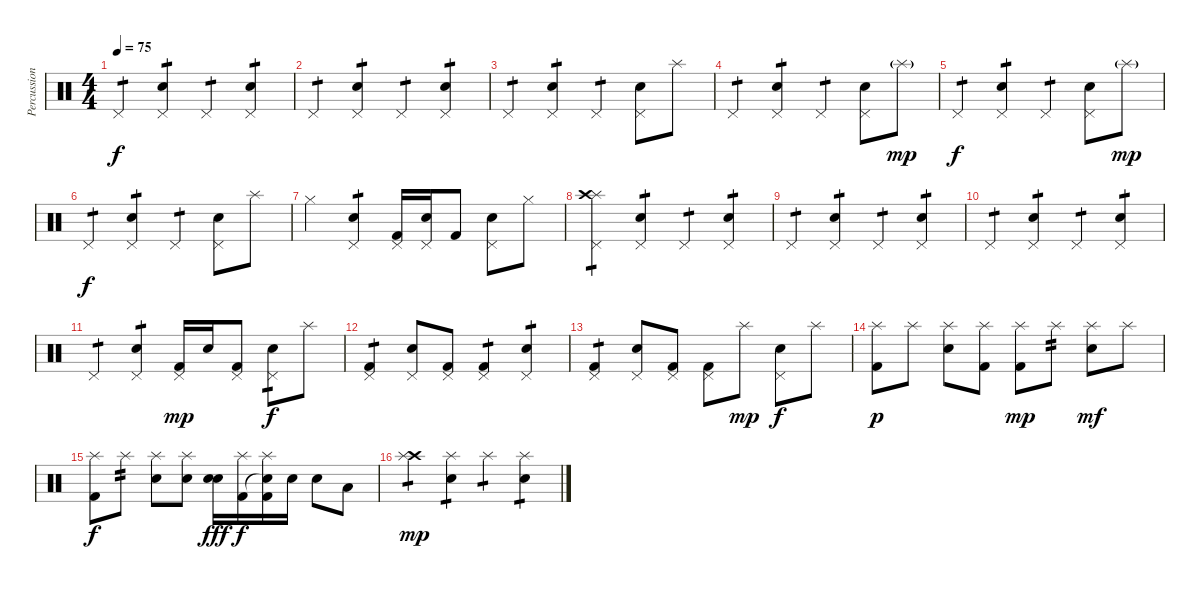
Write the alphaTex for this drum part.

\track ("Percussion" "Percussion") {instrument percussion}
\staff {score}
\articulation defaults
\ts (4 4)
\tempo 75
\clef neutral
\ks c "Pedal Hi-Hat (hit)".4{tp 1 dy f}
("Electric Snare (hit)" "Pedal Hi-Hat (hit)").4{tp 1} "Pedal Hi-Hat (hit)".4{tp 1} ("Electric Snare (hit)" "Pedal Hi-Hat (hit)").4{tp 1} |
"Pedal Hi-Hat (hit)".4{tp 1} ("Electric Snare (hit)" "Pedal Hi-Hat (hit)").4{tp 1} "Pedal Hi-Hat (hit)".4{tp 1} ("Electric Snare (hit)" "Pedal Hi-Hat (hit)").4{tp 1} |
"Pedal Hi-Hat (hit)".4{tp 1} ("Electric Snare (hit)" "Pedal Hi-Hat (hit)").4{tp 1} "Pedal Hi-Hat (hit)".4{tp 1} ("Electric Snare (hit)" "Pedal Hi-Hat (hit)").8 "Splash (hit)".8 |
"Pedal Hi-Hat (hit)".4{tp 1} ("Electric Snare (hit)" "Pedal Hi-Hat (hit)").4{tp 1} "Pedal Hi-Hat (hit)".4{tp 1} ("Electric Snare (hit)" "Pedal Hi-Hat (hit)").8 "Splash (hit)"{g}.8{dy mp} |
"Pedal Hi-Hat (hit)".4{tp 1 dy f} ("Electric Snare (hit)" "Pedal Hi-Hat (hit)").4{tp 1} "Pedal Hi-Hat (hit)".4{tp 1} ("Electric Snare (hit)" "Pedal Hi-Hat (hit)").8 "Splash (hit)"{g}.8{dy mp} |
"Pedal Hi-Hat (hit)".4{tp 1 dy f} ("Electric Snare (hit)" "Pedal Hi-Hat (hit)").4{tp 1} "Pedal Hi-Hat (hit)".4{tp 1} ("Electric Snare (hit)" "Pedal Hi-Hat (hit)").8 "Splash (hit)".8 |
"Hi-Hat (closed)".4 ("Electric Snare (hit)" "Pedal Hi-Hat (hit)").4{tp 1} ("Kick (hit) 2" "Pedal Hi-Hat (hit)").16 ("Electric Snare (hit)" "Pedal Hi-Hat (hit)").16 "Kick (hit) 2".8 ("Electric Snare (hit)" "Pedal Hi-Hat (hit)").8 "Hi-Hat (closed)".8 |
("Splash (hit)" "Crash high (hit)" "Pedal Hi-Hat (hit)").4{tp 1} ("Electric Snare (hit)" "Pedal Hi-Hat (hit)").4{tp 1} "Pedal Hi-Hat (hit)".4{tp 1} ("Electric Snare (hit)" "Pedal Hi-Hat (hit)").4{tp 1} |
"Pedal Hi-Hat (hit)".4{tp 1} ("Electric Snare (hit)" "Pedal Hi-Hat (hit)").4{tp 1} "Pedal Hi-Hat (hit)".4{tp 1} ("Electric Snare (hit)" "Pedal Hi-Hat (hit)").4{tp 1} |
"Pedal Hi-Hat (hit)".4{tp 1} ("Electric Snare (hit)" "Pedal Hi-Hat (hit)").4{tp 1} "Pedal Hi-Hat (hit)".4{tp 1} ("Electric Snare (hit)" "Pedal Hi-Hat (hit)").4{tp 1} |
"Pedal Hi-Hat (hit)".4{tp 1} ("Electric Snare (hit)" "Pedal Hi-Hat (hit)").4{tp 1} ("Kick (hit) 2" "Pedal Hi-Hat (hit)").16{dy mp} "Electric Snare (hit)".16 ("Kick (hit) 2" "Pedal Hi-Hat (hit)").8 ("Electric Snare (hit)" "Pedal Hi-Hat (hit)").8{tp 1 dy f} "Splash (hit)".8 |
("Pedal Hi-Hat (hit)" "Kick (hit) 2").4{tp 1} ("Electric Snare (hit)" "Pedal Hi-Hat (hit)").8 ("Pedal Hi-Hat (hit)" "Kick (hit) 2").8 ("Pedal Hi-Hat (hit)" "Kick (hit) 2").4{tp 1} ("Electric Snare (hit)" "Pedal Hi-Hat (hit)").4{tp 1} |
("Pedal Hi-Hat (hit)" "Kick (hit) 2").4{tp 1} ("Electric Snare (hit)" "Pedal Hi-Hat (hit)").8 ("Pedal Hi-Hat (hit)" "Kick (hit) 2").8 ("Pedal Hi-Hat (hit)" "Kick (hit) 2").8 "Splash (hit)".8{dy mp} ("Electric Snare (hit)" "Pedal Hi-Hat (hit)").8{dy f} "Splash (hit)".8 |
("Kick (hit) 2" "Splash (hit)").8{dy p} "Splash (hit)".8 ("Electric Snare (hit)" "Splash (hit)").8 ("Kick (hit) 2" "Splash (hit)").8 ("Kick (hit) 2" "Splash (hit)").8{dy mp} "Splash (hit)".8{tp 2} ("Electric Snare (hit)" "Splash (hit)").8{dy mf} "Splash (hit)".8 |
("Kick (hit) 2" "Splash (hit)").8{dy f} "Splash (hit)".8{tp 2} ("Electric Snare (hit)" "Splash (hit)").8 ("Electric Snare (hit)" "Splash (hit)").8 ("Snare (hit) 2" "Electric Snare (hit)").16{dy fff} ("Kick (hit) 2" "Splash (hit)").16{dy f} ("Snare (hit)"{t} "Kick (hit) 2" "Splash (hit)").16 "Electric Snare (hit)".16 "Electric Snare (hit)".8 "Low Floor Tom (hit)".8 |
("Crash high (hit)" "Splash (hit)").4{tp 1 dy mp} ("Electric Snare (hit)" "Splash (hit)").4{tp 1} "Splash (hit)".4{tp 1} ("Electric Snare (hit)" "Splash (hit)").4{tp 1}
